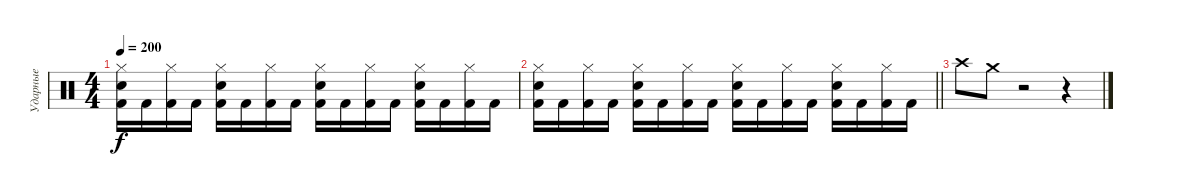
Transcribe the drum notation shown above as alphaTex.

\track ("Ударные" "Ударные") {instrument percussion}
\staff {score}
\articulation defaults
\ts (4 4)
\tempo 200
\clef neutral
\ks c
("Hi-Hat (closed)" "Snare (hit) 2" "Kick (hit) 2").16{dy f} "Kick (hit) 2".16 ("Hi-Hat (closed)" "Kick (hit) 2").16 "Kick (hit) 2".16 ("Hi-Hat (closed)" "Snare (hit) 2" "Kick (hit) 2").16 "Kick (hit) 2".16 ("Hi-Hat (closed)" "Kick (hit) 2").16 "Kick (hit) 2".16 ("Hi-Hat (closed)" "Snare (hit) 2" "Kick (hit) 2").16 "Kick (hit) 2".16 ("Hi-Hat (closed)" "Kick (hit) 2").16 "Kick (hit) 2".16 ("Hi-Hat (closed)" "Snare (hit) 2" "Kick (hit) 2").16 "Kick (hit) 2".16 ("Hi-Hat (closed)" "Kick (hit) 2").16 "Kick (hit) 2".16 |
\barLineRight lightlight
("Hi-Hat (closed)" "Snare (hit) 2" "Kick (hit) 2").16 "Kick (hit) 2".16 ("Hi-Hat (closed)" "Kick (hit) 2").16 "Kick (hit) 2".16 ("Hi-Hat (closed)" "Snare (hit) 2" "Kick (hit) 2").16 "Kick (hit) 2".16 ("Hi-Hat (closed)" "Kick (hit) 2").16 "Kick (hit) 2".16 ("Hi-Hat (closed)" "Snare (hit) 2" "Kick (hit) 2").16 "Kick (hit) 2".16 ("Hi-Hat (closed)" "Kick (hit) 2").16 "Kick (hit) 2".16 ("Hi-Hat (closed)" "Snare (hit) 2" "Kick (hit) 2").16 "Kick (hit) 2".16 ("Hi-Hat (closed)" "Kick (hit) 2").16 "Kick (hit) 2".16 |
"Crash high (hit)".8 "Crash medium (hit)".8 r.2 r.4
